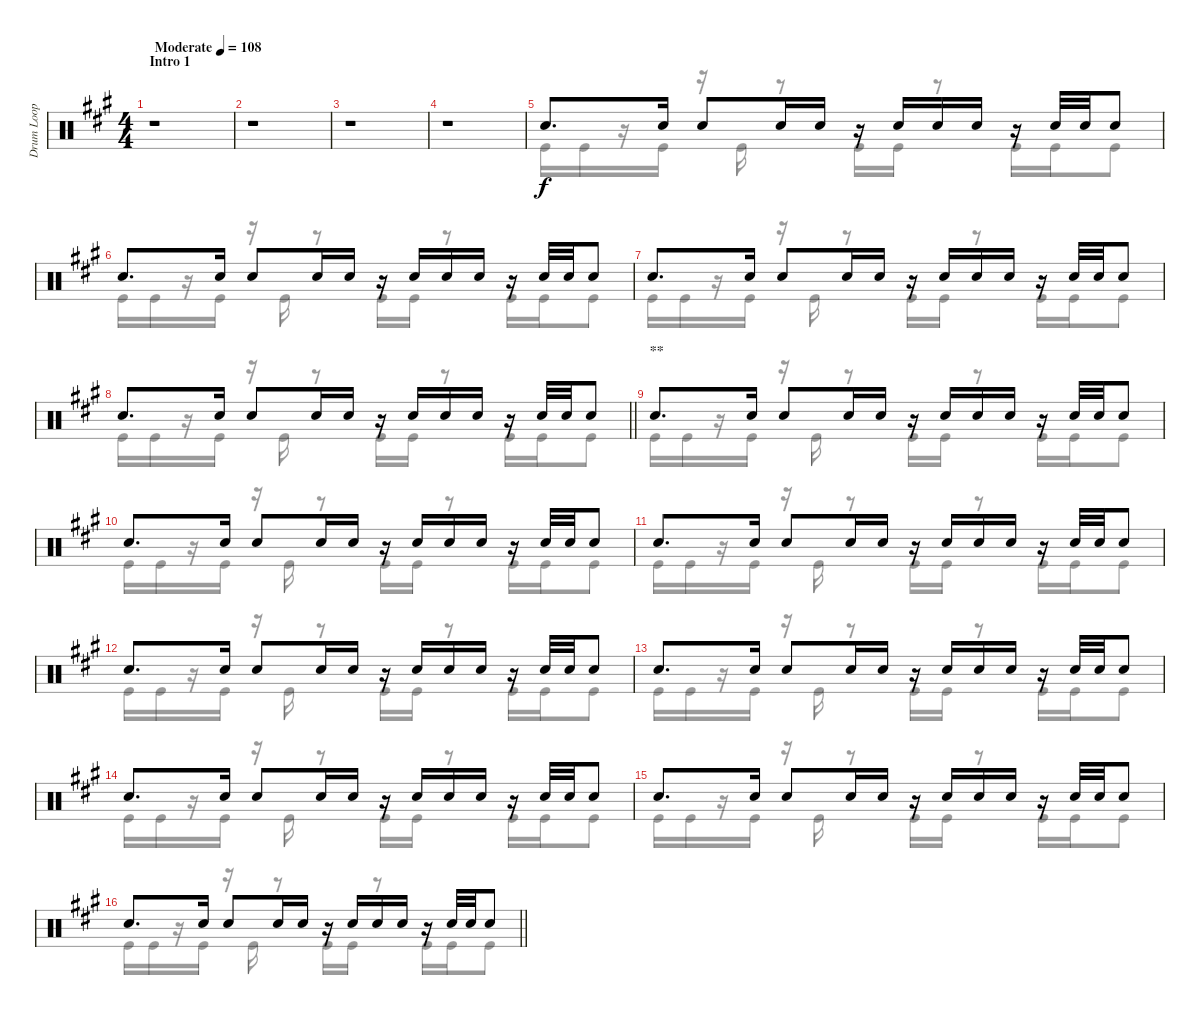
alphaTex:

\track ("Drum Loop" "Drum Loop") {instrument percussion}
\staff {score}
\articulation defaults
\voice
\ts (4 4)
\section ("" "Intro 1")
\tempo (108 "Moderate")
\clef neutral
\ks f#minor
r.1{dy f} |
r.1 |
r.1 |
r.1 |
"Electric Snare (hit)".8{d} "Electric Snare (hit)".16 "Electric Snare (hit)".8 "Electric Snare (hit)".16 "Electric Snare (hit)".16 r.16 "Electric Snare (hit)".16 "Electric Snare (hit)".16 "Electric Snare (hit)".16 r.16 "Electric Snare (hit)".32 "Electric Snare (hit)".32 "Electric Snare (hit)".8 |
"Electric Snare (hit)".8{d} "Electric Snare (hit)".16 "Electric Snare (hit)".8 "Electric Snare (hit)".16 "Electric Snare (hit)".16 r.16 "Electric Snare (hit)".16 "Electric Snare (hit)".16 "Electric Snare (hit)".16 r.16 "Electric Snare (hit)".32 "Electric Snare (hit)".32 "Electric Snare (hit)".8 |
"Electric Snare (hit)".8{d} "Electric Snare (hit)".16 "Electric Snare (hit)".8 "Electric Snare (hit)".16 "Electric Snare (hit)".16 r.16 "Electric Snare (hit)".16 "Electric Snare (hit)".16 "Electric Snare (hit)".16 r.16 "Electric Snare (hit)".32 "Electric Snare (hit)".32 "Electric Snare (hit)".8 |
\barLineRight lightlight "Electric Snare (hit)".8{d} "Electric Snare (hit)".16 "Electric Snare (hit)".8 "Electric Snare (hit)".16 "Electric Snare (hit)".16
r.16 "Electric Snare (hit)".16 "Electric Snare (hit)".16 "Electric Snare (hit)".16 r.16 "Electric Snare (hit)".32 "Electric Snare (hit)".32 "Electric Snare (hit)".8 |
\section ("" "**")
"Electric Snare (hit)".8{d} "Electric Snare (hit)".16 "Electric Snare (hit)".8 "Electric Snare (hit)".16 "Electric Snare (hit)".16 r.16 "Electric Snare (hit)".16 "Electric Snare (hit)".16 "Electric Snare (hit)".16 r.16 "Electric Snare (hit)".32 "Electric Snare (hit)".32 "Electric Snare (hit)".8 |
"Electric Snare (hit)".8{d} "Electric Snare (hit)".16 "Electric Snare (hit)".8 "Electric Snare (hit)".16 "Electric Snare (hit)".16 r.16 "Electric Snare (hit)".16 "Electric Snare (hit)".16 "Electric Snare (hit)".16 r.16 "Electric Snare (hit)".32 "Electric Snare (hit)".32 "Electric Snare (hit)".8 |
"Electric Snare (hit)".8{d} "Electric Snare (hit)".16 "Electric Snare (hit)".8 "Electric Snare (hit)".16 "Electric Snare (hit)".16 r.16 "Electric Snare (hit)".16 "Electric Snare (hit)".16 "Electric Snare (hit)".16 r.16 "Electric Snare (hit)".32 "Electric Snare (hit)".32 "Electric Snare (hit)".8 |
"Electric Snare (hit)".8{d} "Electric Snare (hit)".16 "Electric Snare (hit)".8 "Electric Snare (hit)".16 "Electric Snare (hit)".16 r.16 "Electric Snare (hit)".16 "Electric Snare (hit)".16 "Electric Snare (hit)".16 r.16 "Electric Snare (hit)".32 "Electric Snare (hit)".32 "Electric Snare (hit)".8 |
"Electric Snare (hit)".8{d} "Electric Snare (hit)".16 "Electric Snare (hit)".8 "Electric Snare (hit)".16 "Electric Snare (hit)".16 r.16 "Electric Snare (hit)".16 "Electric Snare (hit)".16 "Electric Snare (hit)".16 r.16 "Electric Snare (hit)".32 "Electric Snare (hit)".32 "Electric Snare (hit)".8 |
"Electric Snare (hit)".8{d} "Electric Snare (hit)".16 "Electric Snare (hit)".8 "Electric Snare (hit)".16 "Electric Snare (hit)".16 r.16 "Electric Snare (hit)".16 "Electric Snare (hit)".16 "Electric Snare (hit)".16 r.16 "Electric Snare (hit)".32 "Electric Snare (hit)".32 "Electric Snare (hit)".8 |
"Electric Snare (hit)".8{d} "Electric Snare (hit)".16 "Electric Snare (hit)".8 "Electric Snare (hit)".16 "Electric Snare (hit)".16 r.16 "Electric Snare (hit)".16 "Electric Snare (hit)".16 "Electric Snare (hit)".16 r.16 "Electric Snare (hit)".32 "Electric Snare (hit)".32 "Electric Snare (hit)".8 |
\barLineRight lightlight "Electric Snare (hit)".8{d} "Electric Snare (hit)".16 "Electric Snare (hit)".8 "Electric Snare (hit)".16 "Electric Snare (hit)".16
r.16 "Electric Snare (hit)".16 "Electric Snare (hit)".16 "Electric Snare (hit)".16 r.16 "Electric Snare (hit)".32 "Electric Snare (hit)".32 "Electric Snare (hit)".8
\voice
\clef neutral
\ottava regular
\simile none
\ks f#minor
r.1{dy f} |
r.1 |
r.1 |
r.1 |
"Kick (hit)".16 "Kick (hit)".16 r.16 "Kick (hit)".16 r.16 "Kick (hit)".16 r.8 "Kick (hit)".16 "Kick (hit)".16 r.8 "Kick (hit)".16 "Kick (hit)".16 "Kick (hit)".8 |
"Kick (hit)".16 "Kick (hit)".16 r.16 "Kick (hit)".16 r.16 "Kick (hit)".16 r.8 "Kick (hit)".16 "Kick (hit)".16 r.8 "Kick (hit)".16 "Kick (hit)".16 "Kick (hit)".8 |
"Kick (hit)".16 "Kick (hit)".16 r.16 "Kick (hit)".16 r.16 "Kick (hit)".16 r.8 "Kick (hit)".16 "Kick (hit)".16 r.8 "Kick (hit)".16 "Kick (hit)".16 "Kick (hit)".8 |
\barLineRight lightlight "Kick (hit)".16 "Kick (hit)".16
r.16 "Kick (hit)".16 r.16 "Kick (hit)".16 r.8 "Kick (hit)".16 "Kick (hit)".16 r.8 "Kick (hit)".16 "Kick (hit)".16 "Kick (hit)".8 |
"Kick (hit)".16 "Kick (hit)".16 r.16 "Kick (hit)".16 r.16 "Kick (hit)".16 r.8 "Kick (hit)".16 "Kick (hit)".16 r.8 "Kick (hit)".16 "Kick (hit)".16 "Kick (hit)".8 |
"Kick (hit)".16 "Kick (hit)".16 r.16 "Kick (hit)".16 r.16 "Kick (hit)".16 r.8 "Kick (hit)".16 "Kick (hit)".16 r.8 "Kick (hit)".16 "Kick (hit)".16 "Kick (hit)".8 |
"Kick (hit)".16 "Kick (hit)".16 r.16 "Kick (hit)".16 r.16 "Kick (hit)".16 r.8 "Kick (hit)".16 "Kick (hit)".16 r.8 "Kick (hit)".16 "Kick (hit)".16 "Kick (hit)".8 |
"Kick (hit)".16 "Kick (hit)".16 r.16 "Kick (hit)".16 r.16 "Kick (hit)".16 r.8 "Kick (hit)".16 "Kick (hit)".16 r.8 "Kick (hit)".16 "Kick (hit)".16 "Kick (hit)".8 |
"Kick (hit)".16 "Kick (hit)".16 r.16 "Kick (hit)".16 r.16 "Kick (hit)".16 r.8 "Kick (hit)".16 "Kick (hit)".16 r.8 "Kick (hit)".16 "Kick (hit)".16 "Kick (hit)".8 |
"Kick (hit)".16 "Kick (hit)".16 r.16 "Kick (hit)".16 r.16 "Kick (hit)".16 r.8 "Kick (hit)".16 "Kick (hit)".16 r.8 "Kick (hit)".16 "Kick (hit)".16 "Kick (hit)".8 |
"Kick (hit)".16 "Kick (hit)".16 r.16 "Kick (hit)".16 r.16 "Kick (hit)".16 r.8 "Kick (hit)".16 "Kick (hit)".16 r.8 "Kick (hit)".16 "Kick (hit)".16 "Kick (hit)".8 |
\barLineRight lightlight "Kick (hit)".16 "Kick (hit)".16
r.16 "Kick (hit)".16 r.16 "Kick (hit)".16 r.8 "Kick (hit)".16 "Kick (hit)".16 r.8 "Kick (hit)".16 "Kick (hit)".16 "Kick (hit)".8
